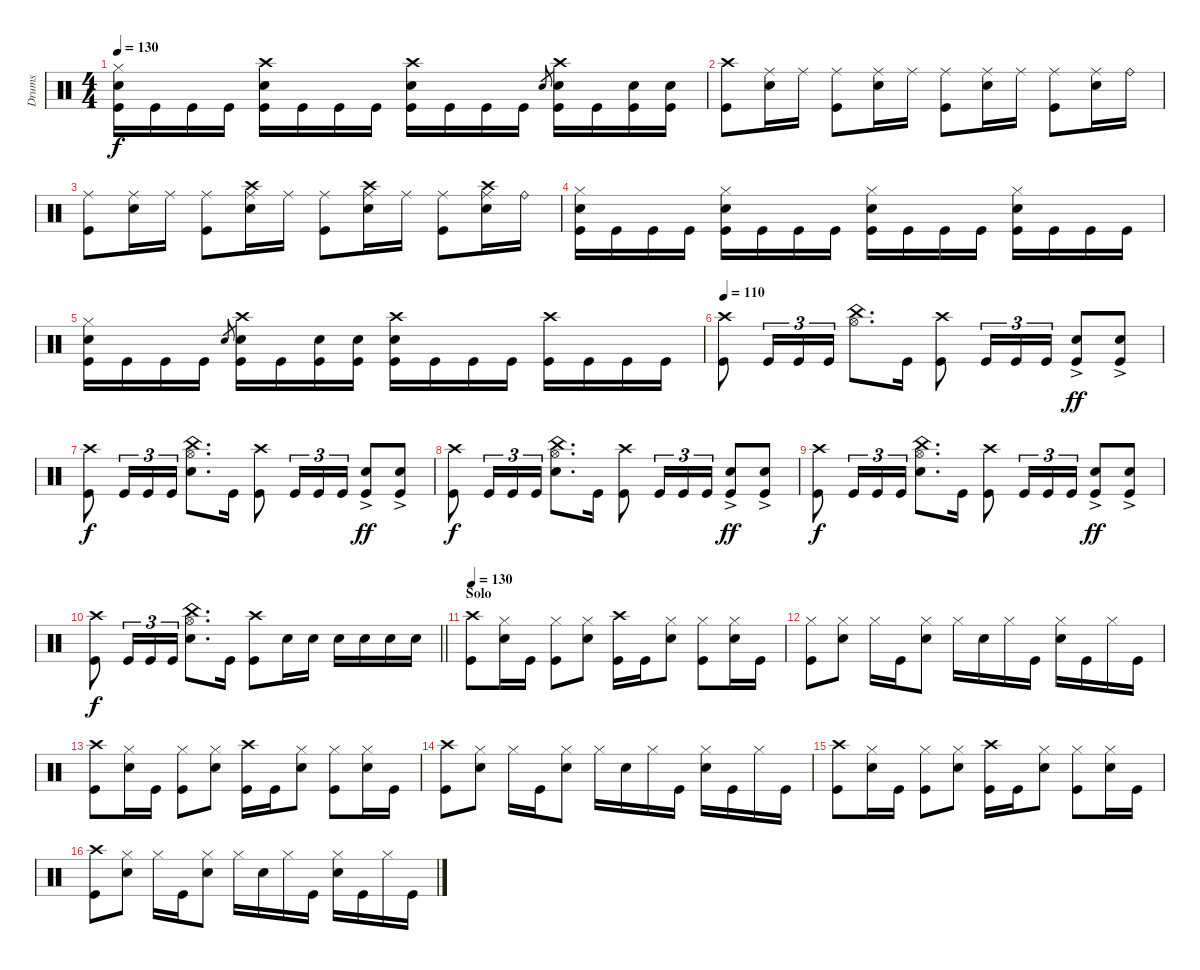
\track ("Drums" "Drums") {instrument percussion}
\staff {score}
\articulation defaults
\ts (4 4)
\tempo 130
\clef neutral
\ks c
("Kick (hit)" "Snare (hit) 2" "Hi-Hat (closed)").16{dy f} "Kick (hit)".16 "Kick (hit)".16 "Kick (hit)".16 ("Kick (hit)" "Snare (hit) 2" "Crash high (hit)").16 "Kick (hit)".16 "Kick (hit)".16 "Kick (hit)".16 ("Kick (hit)" "Snare (hit) 2" "Crash high (hit)").16 "Kick (hit)".16 "Kick (hit)".16 "Kick (hit)".16 "Snare (hit) 2".8{gr} ("Kick (hit)" "Snare (hit) 2" "Crash high (hit)").16 "Kick (hit)".16 ("Kick (hit)" "Snare (hit) 2").16 ("Kick (hit)" "Snare (hit) 2").16 |
("Crash high (hit)" "Kick (hit)").8 ("Ride (middle)" "Snare (hit) 2").16 "Ride (middle)".16 ("Ride (middle)" "Kick (hit)").8 ("Ride (middle)" "Snare (hit) 2").16 "Ride (middle)".16 ("Ride (middle)" "Kick (hit)").8 ("Ride (middle)" "Snare (hit) 2").16 "Ride (middle)".16 ("Ride (middle)" "Kick (hit)").8 ("Ride (middle)" "Snare (hit) 2").16 "Ride (bell)".16 |
("Ride (middle)" "Kick (hit)").8 ("Ride (middle)" "Snare (hit) 2").16 "Ride (middle)".16 ("Ride (middle)" "Kick (hit)").8 ("Ride (middle)" "Snare (hit) 2" "Crash high (hit)").16 "Ride (middle)".16 ("Ride (middle)" "Kick (hit)").8 ("Ride (middle)" "Snare (hit) 2" "Crash high (hit)").16 "Ride (middle)".16 ("Ride (middle)" "Kick (hit)").8 ("Ride (middle)" "Snare (hit) 2" "Crash high (hit)").16 "Ride (bell)".16 |
("Kick (hit)" "Snare (hit) 2" "Hi-Hat (closed)").16 "Kick (hit)".16 "Kick (hit)".16 "Kick (hit)".16 ("Kick (hit)" "Snare (hit) 2" "Hi-Hat (closed)").16 "Kick (hit)".16 "Kick (hit)".16 "Kick (hit)".16 ("Kick (hit)" "Snare (hit) 2" "Hi-Hat (closed)").16 "Kick (hit)".16 "Kick (hit)".16 "Kick (hit)".16 ("Kick (hit)" "Snare (hit) 2" "Hi-Hat (closed)").16 "Kick (hit)".16 "Kick (hit)".16 "Kick (hit)".16 |
("Kick (hit)" "Snare (hit) 2" "Hi-Hat (closed)").16 "Kick (hit)".16 "Kick (hit)".16 "Kick (hit)".16 "Snare (hit) 2"{h}.8{gr} ("Kick (hit)" "Snare (hit) 2" "Crash high (hit)").16 "Kick (hit)".16 ("Kick (hit)" "Snare (hit) 2").16 ("Kick (hit)" "Snare (hit) 2").16 ("Kick (hit)" "Snare (hit) 2" "Crash high (hit)").16 "Kick (hit)".16 "Kick (hit)".16 "Kick (hit)".16 ("Kick (hit)" "Crash high (hit)").16 "Kick (hit)".16 "Kick (hit)".16 "Kick (hit)".16 |
\tempo 110
("Crash high (hit)" "Kick (hit)").8 "Kick (hit)".16{tu (3 2)} "Kick (hit)".16{tu (3 2)} "Kick (hit)".16{tu (3 2)} ("China (hit)" "Hi-Hat (open)").8{d} "Kick (hit)".16 ("Crash high (hit)" "Kick (hit)").8 "Kick (hit)".16{tu (3 2)} "Kick (hit)".16{tu (3 2)} "Kick (hit)".16{tu (3 2)} ("Snare (hit) 2" "Kick (hit)"{ac}).8{dy ff} ("Snare (hit) 2" "Kick (hit)"{ac}).8 |
("Crash high (hit)" "Kick (hit)").8{dy f} "Kick (hit)".16{tu (3 2)} "Kick (hit)".16{tu (3 2)} "Kick (hit)".16{tu (3 2)} ("Hi-Hat (open)" "Snare (hit) 2" "China (hit)").8{d} "Kick (hit)".16 ("Crash high (hit)" "Kick (hit)").8 "Kick (hit)".16{tu (3 2)} "Kick (hit)".16{tu (3 2)} "Kick (hit)".16{tu (3 2)} ("Snare (hit) 2" "Kick (hit)"{ac}).8{dy ff} ("Snare (hit) 2" "Kick (hit)"{ac}).8 |
("Crash high (hit)" "Kick (hit)").8{dy f} "Kick (hit)".16{tu (3 2)} "Kick (hit)".16{tu (3 2)} "Kick (hit)".16{tu (3 2)} ("Hi-Hat (open)" "Snare (hit) 2" "China (hit)").8{d} "Kick (hit)".16 ("Crash high (hit)" "Kick (hit)").8 "Kick (hit)".16{tu (3 2)} "Kick (hit)".16{tu (3 2)} "Kick (hit)".16{tu (3 2)} ("Snare (hit) 2" "Kick (hit)"{ac}).8{dy ff} ("Snare (hit) 2" "Kick (hit)"{ac}).8 |
("Crash high (hit)" "Kick (hit)").8{dy f} "Kick (hit)".16{tu (3 2)} "Kick (hit)".16{tu (3 2)} "Kick (hit)".16{tu (3 2)} ("Hi-Hat (open)" "Snare (hit) 2" "China (hit)").8{d} "Kick (hit)".16 ("Crash high (hit)" "Kick (hit)").8 "Kick (hit)".16{tu (3 2)} "Kick (hit)".16{tu (3 2)} "Kick (hit)".16{tu (3 2)} ("Snare (hit) 2" "Kick (hit)"{ac}).8{dy ff} ("Snare (hit) 2" "Kick (hit)"{ac}).8 |
\barLineRight lightlight
("Crash high (hit)" "Kick (hit)").8{dy f} "Kick (hit)".16{tu (3 2)} "Kick (hit)".16{tu (3 2)} "Kick (hit)".16{tu (3 2)} ("Hi-Hat (open)" "Snare (hit) 2" "China (hit)").8{d} "Kick (hit)".16 ("Crash high (hit)" "Kick (hit)").8 "Snare (hit) 2".16 "Snare (hit) 2".16 "Snare (hit) 2".16 "Snare (hit) 2".16 "Snare (hit) 2".16 "Snare (hit) 2".16 |
\section ("" "Solo")
\tempo 130
("Crash high (hit)" "Kick (hit)").8 ("Hi-Hat (closed)" "Snare (hit) 2").16 "Kick (hit)".16 ("Hi-Hat (closed)" "Kick (hit)").8 ("Hi-Hat (closed)" "Snare (hit) 2").8 ("Kick (hit)" "Crash high (hit)").16 "Kick (hit)".16 ("Hi-Hat (closed)" "Snare (hit) 2").8 ("Hi-Hat (closed)" "Kick (hit)").8 ("Hi-Hat (closed)" "Snare (hit) 2").16 "Kick (hit)".16 |
("Hi-Hat (closed)" "Kick (hit)").8 ("Snare (hit) 2" "Hi-Hat (closed)").8 "Hi-Hat (closed)".16 "Kick (hit)".16 ("Hi-Hat (closed)" "Snare (hit) 2").8 "Hi-Hat (closed)".16 "Snare (hit) 2".16 "Hi-Hat (closed)".16 "Kick (hit)".16 ("Hi-Hat (closed)" "Snare (hit) 2").16 "Kick (hit)".16 "Hi-Hat (closed)".16 "Kick (hit)".16 |
("Crash high (hit)" "Kick (hit)").8 ("Hi-Hat (closed)" "Snare (hit) 2").16 "Kick (hit)".16 ("Hi-Hat (closed)" "Kick (hit)").8 ("Hi-Hat (closed)" "Snare (hit) 2").8 ("Kick (hit)" "Crash high (hit)").16 "Kick (hit)".16 ("Hi-Hat (closed)" "Snare (hit) 2").8 ("Hi-Hat (closed)" "Kick (hit)").8 ("Hi-Hat (closed)" "Snare (hit) 2").16 "Kick (hit)".16 |
("Crash high (hit)" "Kick (hit)").8 ("Snare (hit) 2" "Hi-Hat (closed)").8 "Hi-Hat (closed)".16 "Kick (hit)".16 ("Hi-Hat (closed)" "Snare (hit) 2").8 "Hi-Hat (closed)".16 "Snare (hit) 2".16 "Hi-Hat (closed)".16 "Kick (hit)".16 ("Hi-Hat (closed)" "Snare (hit) 2").16 "Kick (hit)".16 "Hi-Hat (closed)".16 "Kick (hit)".16 |
("Crash high (hit)" "Kick (hit)").8 ("Hi-Hat (closed)" "Snare (hit) 2").16 "Kick (hit)".16 ("Hi-Hat (closed)" "Kick (hit)").8 ("Hi-Hat (closed)" "Snare (hit) 2").8 ("Kick (hit)" "Crash high (hit)").16 "Kick (hit)".16 ("Hi-Hat (closed)" "Snare (hit) 2").8 ("Hi-Hat (closed)" "Kick (hit)").8 ("Hi-Hat (closed)" "Snare (hit) 2").16 "Kick (hit)".16 |
("Crash high (hit)" "Kick (hit)").8 ("Snare (hit) 2" "Hi-Hat (closed)").8 "Hi-Hat (closed)".16 "Kick (hit)".16 ("Hi-Hat (closed)" "Snare (hit) 2").8 "Hi-Hat (closed)".16 "Snare (hit) 2".16 "Hi-Hat (closed)".16 "Kick (hit)".16 ("Hi-Hat (closed)" "Snare (hit) 2").16 "Kick (hit)".16 "Hi-Hat (closed)".16 "Kick (hit)".16
